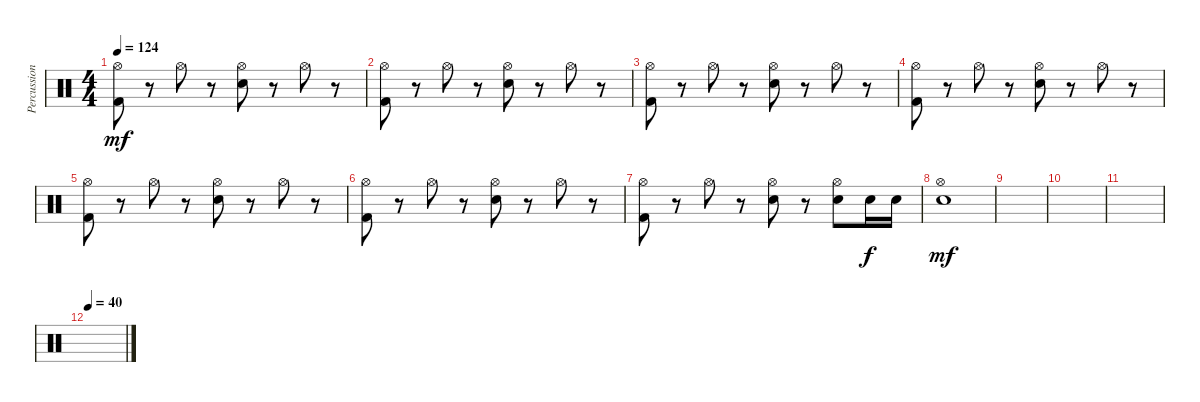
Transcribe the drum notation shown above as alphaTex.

\track ("Percussion" "Percussion") {instrument percussion}
\staff {score}
\articulation defaults
\ts (4 4)
\tempo 124
\clef neutral
\ks c
("Kick (hit) 2" "Hi-Hat (open)").8{dy mf} r.8 "Hi-Hat (open)".8 r.8 ("Electric Snare (hit)" "Hi-Hat (open)").8 r.8 "Hi-Hat (open)".8 r.8 |
("Kick (hit) 2" "Hi-Hat (open)").8 r.8 "Hi-Hat (open)".8 r.8 ("Electric Snare (hit)" "Hi-Hat (open)").8 r.8 "Hi-Hat (open)".8 r.8 |
("Kick (hit) 2" "Hi-Hat (open)").8 r.8 "Hi-Hat (open)".8 r.8 ("Electric Snare (hit)" "Hi-Hat (open)").8 r.8 "Hi-Hat (open)".8 r.8 |
("Kick (hit) 2" "Hi-Hat (open)").8 r.8 "Hi-Hat (open)".8 r.8 ("Electric Snare (hit)" "Hi-Hat (open)").8 r.8 "Hi-Hat (open)".8 r.8 |
("Kick (hit) 2" "Hi-Hat (open)").8 r.8 "Hi-Hat (open)".8 r.8 ("Electric Snare (hit)" "Hi-Hat (open)").8 r.8 "Hi-Hat (open)".8 r.8 |
("Kick (hit) 2" "Hi-Hat (open)").8 r.8 "Hi-Hat (open)".8 r.8 ("Electric Snare (hit)" "Hi-Hat (open)").8 r.8 "Hi-Hat (open)".8 r.8 |
("Kick (hit) 2" "Hi-Hat (open)").8 r.8 "Hi-Hat (open)".8 r.8 ("Electric Snare (hit)" "Hi-Hat (open)").8 r.8 ("Electric Snare (hit)" "Hi-Hat (open)").8 "Electric Snare (hit)".16{dy f} "Electric Snare (hit)".16 |
("Electric Snare (hit)" "Hi-Hat (open)").1{dy mf} |
|
|
|
\tempo 40
